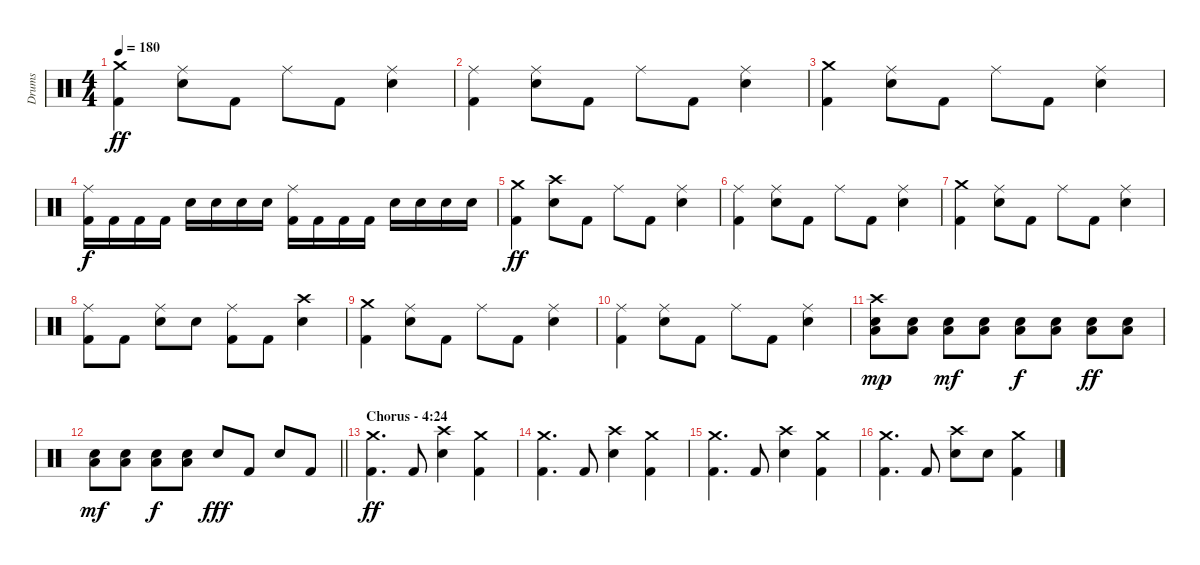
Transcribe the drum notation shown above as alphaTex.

\track ("Drums" "Drums") {instrument percussion}
\staff {score}
\articulation defaults
\ts (4 4)
\tempo 180
\clef neutral
\ks c
("Crash medium (hit)" "Kick (hit) 2").4{dy ff} ("Ride (middle)" "Electric Snare (hit)").8 "Kick (hit) 2".8 "Ride (middle)".8 "Kick (hit) 2".8 ("Ride (middle)" "Electric Snare (hit)").4 |
("Ride (middle)" "Kick (hit) 2").4 ("Ride (middle)" "Electric Snare (hit)").8 "Kick (hit) 2".8 "Ride (middle)".8 "Kick (hit) 2".8 ("Ride (middle)" "Electric Snare (hit)").4 |
("Crash medium (hit)" "Kick (hit) 2").4 ("Ride (middle)" "Electric Snare (hit)").8 "Kick (hit) 2".8 "Ride (middle)".8 "Kick (hit) 2".8 ("Ride (middle)" "Electric Snare (hit)").4 |
("Ride (middle)" "Kick (hit) 2").16{dy f} "Kick (hit) 2".16 "Kick (hit) 2".16 "Kick (hit) 2".16 "Electric Snare (hit)".16 "Electric Snare (hit)".16 "Electric Snare (hit)".16 "Electric Snare (hit)".16 ("Ride (middle)" "Kick (hit) 2").16 "Kick (hit) 2".16 "Kick (hit) 2".16 "Kick (hit) 2".16 "Electric Snare (hit)".16 "Electric Snare (hit)".16 "Electric Snare (hit)".16 "Electric Snare (hit)".16 |
("Crash medium (hit)" "Kick (hit) 2").4{dy ff} ("Crash high (hit)" "Electric Snare (hit)").8 "Kick (hit) 2".8 "Ride (middle)".8 "Kick (hit) 2".8 ("Ride (middle)" "Electric Snare (hit)").4 |
("Ride (middle)" "Kick (hit) 2").4 ("Ride (middle)" "Electric Snare (hit)").8 "Kick (hit) 2".8 "Ride (middle)".8 "Kick (hit) 2".8 ("Ride (middle)" "Electric Snare (hit)").4 |
("Crash medium (hit)" "Kick (hit) 2").4 ("Ride (middle)" "Electric Snare (hit)").8 "Kick (hit) 2".8 "Ride (middle)".8 "Kick (hit) 2".8 ("Ride (middle)" "Electric Snare (hit)").4 |
("Ride (middle)" "Kick (hit) 2").8 "Kick (hit) 2".8 ("Ride (middle)" "Electric Snare (hit)").8 "Electric Snare (hit)".8 ("Ride (middle)" "Kick (hit) 2").8 "Kick (hit) 2".8 ("Crash high (hit)" "Electric Snare (hit)").4 |
("Crash medium (hit)" "Kick (hit) 2").4 ("Ride (middle)" "Electric Snare (hit)").8 "Kick (hit) 2".8 "Ride (middle)".8 "Kick (hit) 2".8 ("Ride (middle)" "Electric Snare (hit)").4 |
("Ride (middle)" "Kick (hit) 2").4 ("Ride (middle)" "Electric Snare (hit)").8 "Kick (hit) 2".8 "Ride (middle)".8 "Kick (hit) 2".8 ("Ride (middle)" "Electric Snare (hit)").4 |
("Crash high (hit)" "Electric Snare (hit)" "Low Tom (hit)").8{dy mp} ("Electric Snare (hit)" "Low Tom (hit)").8 ("Electric Snare (hit)" "Low Tom (hit)").8{dy mf} ("Electric Snare (hit)" "Low Tom (hit)").8 ("Electric Snare (hit)" "Low Tom (hit)").8{dy f} ("Electric Snare (hit)" "Low Tom (hit)").8 ("Electric Snare (hit)" "Low Tom (hit)").8{dy ff} ("Electric Snare (hit)" "Low Tom (hit)").8 |
\barLineRight lightlight
("Electric Snare (hit)" "Low Tom (hit)").8{dy mf} ("Electric Snare (hit)" "Low Tom (hit)").8 ("Electric Snare (hit)" "Low Tom (hit)").8{dy f} ("Electric Snare (hit)" "Low Tom (hit)").8 "Electric Snare (hit)".8{dy fff} "Kick (hit) 2".8 "Electric Snare (hit)".8 "Kick (hit) 2".8 |
\section ("" "Chorus - 4:24")
("Crash medium (hit)" "Kick (hit) 2").4{d dy ff} "Kick (hit) 2".8 ("Crash high (hit)" "Electric Snare (hit)").4 ("Crash medium (hit)" "Kick (hit) 2").4 |
("Crash medium (hit)" "Kick (hit) 2").4{d} "Kick (hit) 2".8 ("Crash high (hit)" "Electric Snare (hit)").4 ("Crash medium (hit)" "Kick (hit) 2").4 |
("Crash medium (hit)" "Kick (hit) 2").4{d} "Kick (hit) 2".8 ("Crash high (hit)" "Electric Snare (hit)").4 ("Crash medium (hit)" "Kick (hit) 2").4 |
("Crash medium (hit)" "Kick (hit) 2").4{d} "Kick (hit) 2".8 ("Crash high (hit)" "Electric Snare (hit)").8 "Electric Snare (hit)".8 ("Crash medium (hit)" "Kick (hit) 2").4
